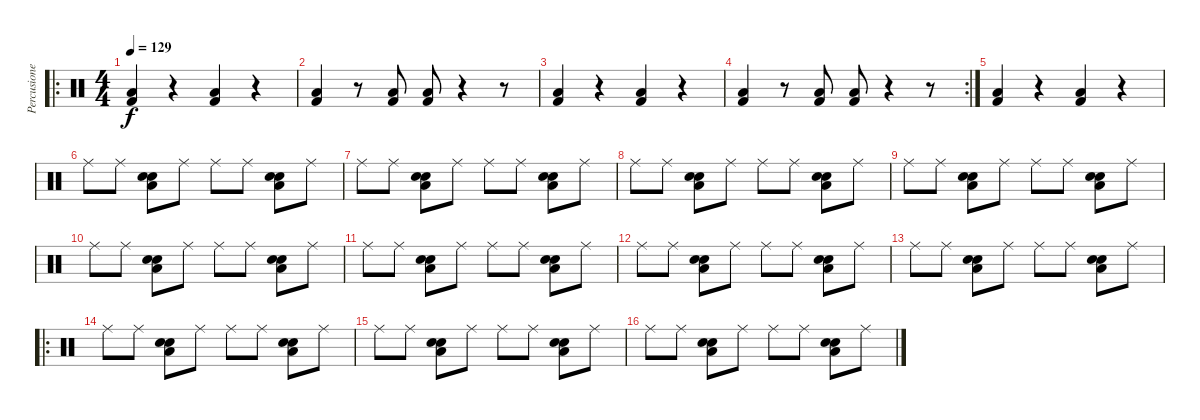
\track ("Percusiones" "Percusione") {instrument percussion}
\staff {score}
\articulation defaults
\ro
\ts (4 4)
\tempo 129
\clef neutral
\ks c
("Kick (hit) 2" "Low Floor Tom (hit)").4{dy f} r.4 ("Kick (hit) 2" "Low Floor Tom (hit)").4 r.4 |
("Kick (hit) 2" "Low Floor Tom (hit)").4 r.8 ("Kick (hit) 2" "Low Floor Tom (hit)").8 ("Kick (hit) 2" "Low Floor Tom (hit)").8 r.4 r.8 |
("Kick (hit) 2" "Low Floor Tom (hit)").4 r.4 ("Kick (hit) 2" "Low Floor Tom (hit)").4 r.4 |
\rc 2
("Kick (hit) 2" "Low Floor Tom (hit)").4 r.8 ("Kick (hit) 2" "Low Floor Tom (hit)").8 ("Kick (hit) 2" "Low Floor Tom (hit)").8 r.4 r.8 |
("Kick (hit) 2" "Low Floor Tom (hit)").4 r.4 ("Kick (hit) 2" "Low Floor Tom (hit)").4 r.4 |
"Ride (middle)".8 "Ride (middle)".8 ("Electric Snare (hit)" "Low Floor Tom (hit)" "Snare (hit) 2").8 "Ride (middle)".8 "Ride (middle)".8 "Ride (middle)".8 ("Electric Snare (hit)" "Low Floor Tom (hit)" "Snare (hit) 2").8 "Ride (middle)".8 |
"Ride (middle)".8 "Ride (middle)".8 ("Electric Snare (hit)" "Low Floor Tom (hit)" "Snare (hit) 2").8 "Ride (middle)".8 "Ride (middle)".8 "Ride (middle)".8 ("Electric Snare (hit)" "Low Floor Tom (hit)" "Snare (hit) 2").8 "Ride (middle)".8 |
"Ride (middle)".8 "Ride (middle)".8 ("Electric Snare (hit)" "Low Floor Tom (hit)" "Snare (hit) 2").8 "Ride (middle)".8 "Ride (middle)".8 "Ride (middle)".8 ("Electric Snare (hit)" "Low Floor Tom (hit)" "Snare (hit) 2").8 "Ride (middle)".8 |
"Ride (middle)".8 "Ride (middle)".8 ("Electric Snare (hit)" "Low Floor Tom (hit)" "Snare (hit) 2").8 "Ride (middle)".8 "Ride (middle)".8 "Ride (middle)".8 ("Electric Snare (hit)" "Low Floor Tom (hit)" "Snare (hit) 2").8 "Ride (middle)".8 |
"Ride (middle)".8 "Ride (middle)".8 ("Electric Snare (hit)" "Low Floor Tom (hit)" "Snare (hit) 2").8 "Ride (middle)".8 "Ride (middle)".8 "Ride (middle)".8 ("Electric Snare (hit)" "Low Floor Tom (hit)" "Snare (hit) 2").8 "Ride (middle)".8 |
"Ride (middle)".8 "Ride (middle)".8 ("Electric Snare (hit)" "Low Floor Tom (hit)" "Snare (hit) 2").8 "Ride (middle)".8 "Ride (middle)".8 "Ride (middle)".8 ("Electric Snare (hit)" "Low Floor Tom (hit)" "Snare (hit) 2").8 "Ride (middle)".8 |
"Ride (middle)".8 "Ride (middle)".8 ("Electric Snare (hit)" "Low Floor Tom (hit)" "Snare (hit) 2").8 "Ride (middle)".8 "Ride (middle)".8 "Ride (middle)".8 ("Electric Snare (hit)" "Low Floor Tom (hit)" "Snare (hit) 2").8 "Ride (middle)".8 |
"Ride (middle)".8 "Ride (middle)".8 ("Electric Snare (hit)" "Low Floor Tom (hit)" "Snare (hit) 2").8 "Ride (middle)".8 "Ride (middle)".8 "Ride (middle)".8 ("Electric Snare (hit)" "Low Floor Tom (hit)" "Snare (hit) 2").8 "Ride (middle)".8 |
\ro "Ride (middle)".8 "Ride (middle)".8
("Electric Snare (hit)" "Low Floor Tom (hit)" "Snare (hit) 2").8 "Ride (middle)".8 "Ride (middle)".8 "Ride (middle)".8 ("Electric Snare (hit)" "Low Floor Tom (hit)" "Snare (hit) 2").8 "Ride (middle)".8 |
"Ride (middle)".8 "Ride (middle)".8 ("Electric Snare (hit)" "Low Floor Tom (hit)" "Snare (hit) 2").8 "Ride (middle)".8 "Ride (middle)".8 "Ride (middle)".8 ("Electric Snare (hit)" "Low Floor Tom (hit)" "Snare (hit) 2").8 "Ride (middle)".8 |
"Ride (middle)".8 "Ride (middle)".8 ("Electric Snare (hit)" "Low Floor Tom (hit)" "Snare (hit) 2").8 "Ride (middle)".8 "Ride (middle)".8 "Ride (middle)".8 ("Electric Snare (hit)" "Low Floor Tom (hit)" "Snare (hit) 2").8 "Ride (middle)".8
